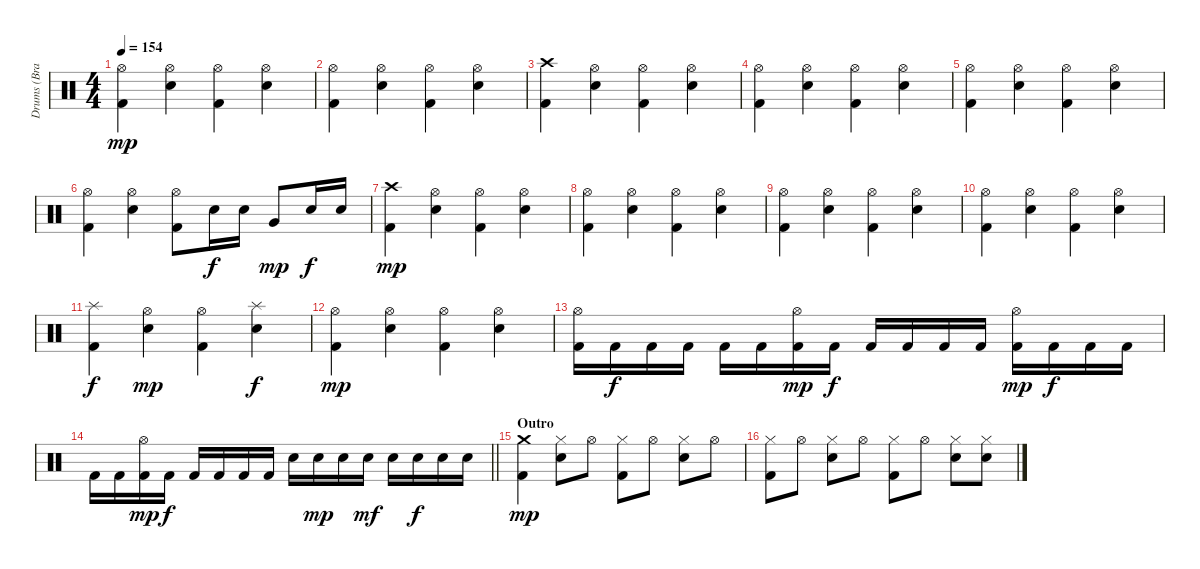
\track ("Drums (Brandon Saller)" "Drums (Bra") {instrument percussion}
\staff {score}
\articulation defaults
\ts (4 4)
\tempo 154
\clef neutral
\ks c
("Hi-Hat (open)" "Kick (hit) 2").4{dy mp} ("Hi-Hat (open)" "Electric Snare (hit)").4 ("Hi-Hat (open)" "Kick (hit) 2").4 ("Hi-Hat (open)" "Electric Snare (hit)").4 |
("Hi-Hat (open)" "Kick (hit) 2").4 ("Hi-Hat (open)" "Electric Snare (hit)").4 ("Hi-Hat (open)" "Kick (hit) 2").4 ("Hi-Hat (open)" "Electric Snare (hit)").4 |
("Crash high (hit)" "Kick (hit) 2").4 ("Hi-Hat (open)" "Electric Snare (hit)").4 ("Hi-Hat (open)" "Kick (hit) 2").4 ("Hi-Hat (open)" "Electric Snare (hit)").4 |
("Hi-Hat (open)" "Kick (hit) 2").4 ("Hi-Hat (open)" "Electric Snare (hit)").4 ("Hi-Hat (open)" "Kick (hit) 2").4 ("Hi-Hat (open)" "Electric Snare (hit)").4 |
("Hi-Hat (open)" "Kick (hit) 2").4 ("Hi-Hat (open)" "Electric Snare (hit)").4 ("Hi-Hat (open)" "Kick (hit) 2").4 ("Hi-Hat (open)" "Electric Snare (hit)").4 |
("Hi-Hat (open)" "Kick (hit) 2").4 ("Hi-Hat (open)" "Electric Snare (hit)").4 ("Hi-Hat (open)" "Kick (hit) 2").8 "Electric Snare (hit)".16{dy f} "Electric Snare (hit)".16 "Very Low Tom (hit)".8{dy mp} "Electric Snare (hit)".16{dy f} "Electric Snare (hit)".16 |
("Crash high (hit)" "Kick (hit) 2").4{dy mp} ("Hi-Hat (open)" "Electric Snare (hit)").4 ("Hi-Hat (open)" "Kick (hit) 2").4 ("Hi-Hat (open)" "Electric Snare (hit)").4 |
("Hi-Hat (open)" "Kick (hit) 2").4 ("Hi-Hat (open)" "Electric Snare (hit)").4 ("Hi-Hat (open)" "Kick (hit) 2").4 ("Hi-Hat (open)" "Electric Snare (hit)").4 |
("Hi-Hat (open)" "Kick (hit) 2").4 ("Hi-Hat (open)" "Electric Snare (hit)").4 ("Hi-Hat (open)" "Kick (hit) 2").4 ("Hi-Hat (open)" "Electric Snare (hit)").4 |
("Hi-Hat (open)" "Kick (hit) 2").4 ("Hi-Hat (open)" "Electric Snare (hit)").4 ("Hi-Hat (open)" "Kick (hit) 2").4 ("Hi-Hat (open)" "Electric Snare (hit)").4 |
("Splash (hit)" "Kick (hit) 2").4{dy f} ("Hi-Hat (open)" "Electric Snare (hit)").4{dy mp} ("Hi-Hat (open)" "Kick (hit) 2").4 ("Splash (hit)" "Electric Snare (hit)").4{dy f} |
("Hi-Hat (open)" "Kick (hit) 2").4{dy mp} ("Hi-Hat (open)" "Electric Snare (hit)").4 ("Hi-Hat (open)" "Kick (hit) 2").4 ("Hi-Hat (open)" "Electric Snare (hit)").4 |
("Hi-Hat (open)" "Kick (hit) 2").16 "Kick (hit) 2".16{dy f} "Kick (hit) 2".16 "Kick (hit) 2".16 "Kick (hit) 2".16 "Kick (hit) 2".16 ("Hi-Hat (open)" "Kick (hit) 2").16{dy mp} "Kick (hit) 2".16{dy f} "Kick (hit) 2".16 "Kick (hit) 2".16 "Kick (hit) 2".16 "Kick (hit) 2".16 ("Hi-Hat (open)" "Kick (hit) 2").16{dy mp} "Kick (hit) 2".16{dy f} "Kick (hit) 2".16 "Kick (hit) 2".16 |
\barLineRight lightlight "Kick (hit) 2".16 "Kick (hit) 2".16
("Hi-Hat (open)" "Kick (hit) 2").16{dy mp} "Kick (hit) 2".16{dy f} "Kick (hit) 2".16 "Kick (hit) 2".16 "Kick (hit) 2".16 "Kick (hit) 2".16 "Electric Snare (hit)".16 "Electric Snare (hit)".16{dy mp} "Electric Snare (hit)".16 "Electric Snare (hit)".16{dy mf} "Electric Snare (hit)".16 "Electric Snare (hit)".16{dy f} "Electric Snare (hit)".16 "Electric Snare (hit)".16 |
\section ("" "Outro")
("Crash medium (hit)" "Kick (hit) 2").4{dy mp} ("Hi-Hat (closed)" "Electric Snare (hit)").8 "Hi-Hat (open)".8 ("Hi-Hat (closed)" "Kick (hit) 2").8 "Hi-Hat (open)".8 ("Hi-Hat (closed)" "Electric Snare (hit)").8 "Hi-Hat (open)".8 |
("Hi-Hat (closed)" "Kick (hit) 2").8 "Hi-Hat (open)".8 ("Hi-Hat (closed)" "Electric Snare (hit)").8 "Hi-Hat (open)".8 ("Hi-Hat (closed)" "Kick (hit) 2").8 "Hi-Hat (open)".8 ("Hi-Hat (closed)" "Electric Snare (hit)").8 ("Hi-Hat (closed)" "Electric Snare (hit)").8
